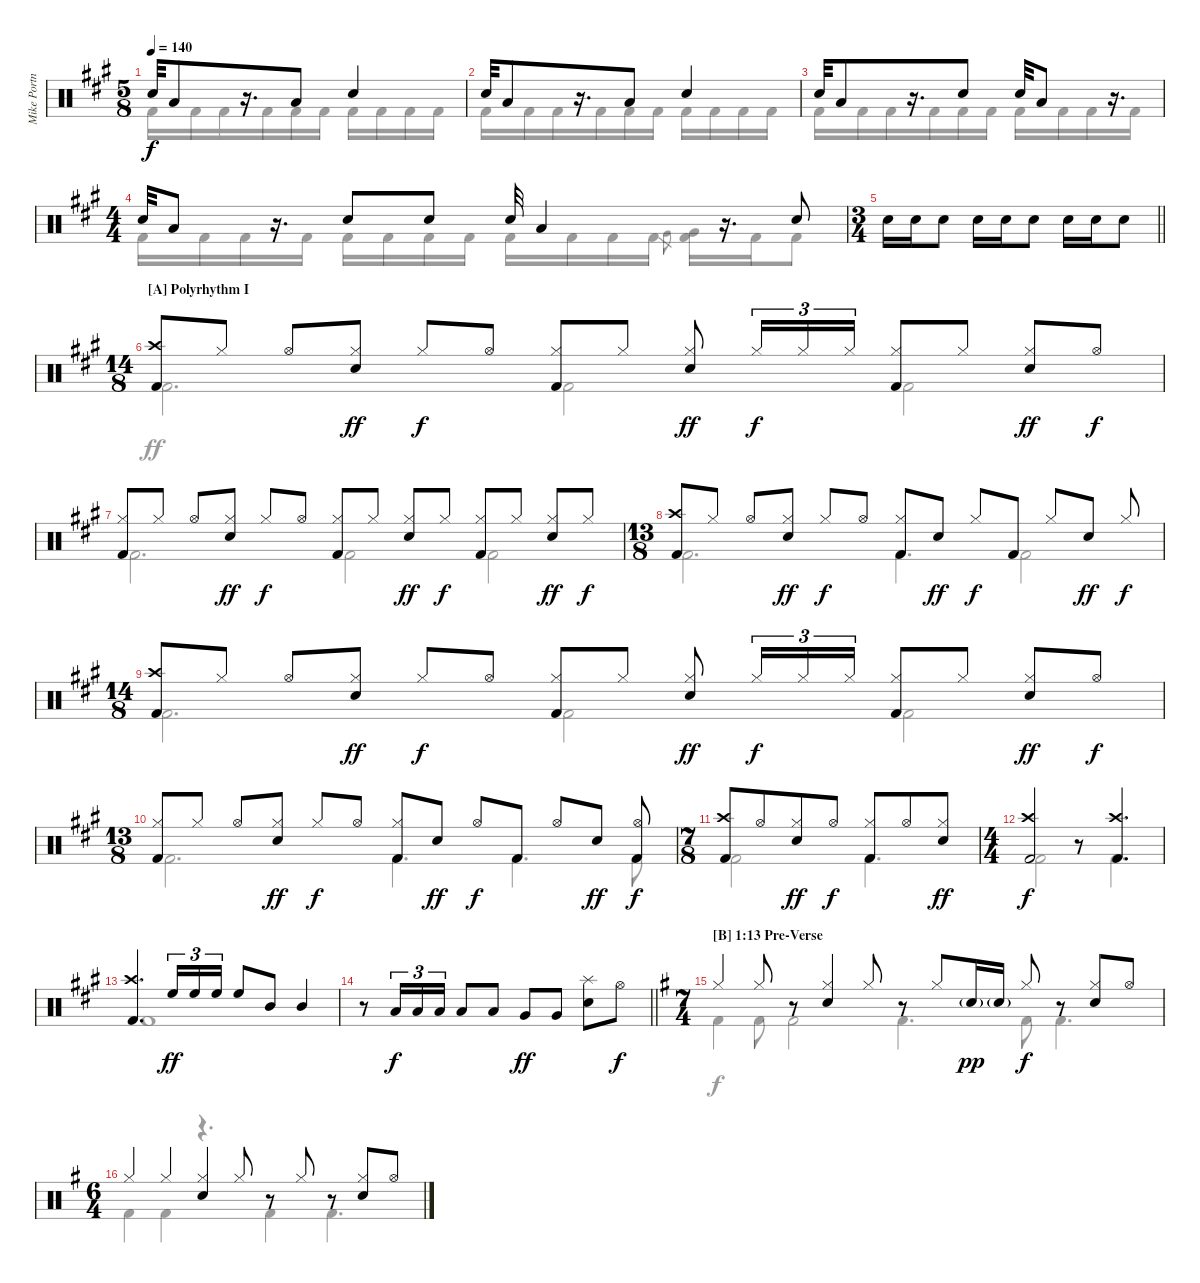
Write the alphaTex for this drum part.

\track ("Mike Portnoy - Drum" "Mike Portn") {instrument percussion}
\staff {score}
\articulation defaults
\voice
\ts (5 8)
\tempo 140
\clef neutral
\ks a "Electric Snare (hit)".32{dy f} "Low Tom (hit)".8
r.16{d} "Low Tom (hit)".8 "Electric Snare (hit)".4 |
"Electric Snare (hit)".32 "Low Tom (hit)".8 r.16{d} "Low Tom (hit)".8 "Electric Snare (hit)".4 |
"Electric Snare (hit)".32 "Low Tom (hit)".8 r.16{d} "Electric Snare (hit)".8 "Electric Snare (hit)".32 "Low Tom (hit)".8 r.16{d} |
\ts (4 4)
"Electric Snare (hit)".32 "Low Tom (hit)".8 r.16{d} "Electric Snare (hit)".8 "Electric Snare (hit)".8 "Electric Snare (hit)".32 "Low Tom (hit)".4 r.16{d} "Electric Snare (hit)".8 |
\ts (3 4)
\barLineRight lightlight "Electric Snare (hit)".16 "Electric Snare (hit)".16 "Electric Snare (hit)".8 "Electric Snare (hit)".16 "Electric Snare (hit)".16 "Electric Snare (hit)".8 "Electric Snare (hit)".16 "Electric Snare (hit)".16 "Electric Snare (hit)".8
|
\ts (14 8)
\section ("" "[A] Polyrhythm I")
("Crash high (hit)" "Kick (hit) 2").8 "Hi-Hat (closed)".8 "Hi-Hat (open)".8 ("Hi-Hat (closed)" "Electric Snare (hit)").8{dy ff} "Hi-Hat (closed)".8{dy f} "Hi-Hat (open)".8 ("Hi-Hat (closed)" "Kick (hit) 2").8 "Hi-Hat (closed)".8 ("Hi-Hat (closed)" "Electric Snare (hit)").8{dy ff} "Hi-Hat (closed)".16{tu (3 2) dy f} "Hi-Hat (closed)".16{tu (3 2)} "Hi-Hat (closed)".16{tu (3 2)} ("Hi-Hat (closed)" "Kick (hit) 2").8 "Hi-Hat (closed)".8 ("Hi-Hat (closed)" "Electric Snare (hit)").8{dy ff} "Hi-Hat (open)".8{dy f} |
("Hi-Hat (closed)" "Kick (hit) 2").8 "Hi-Hat (closed)".8 "Hi-Hat (open)".8 ("Hi-Hat (closed)" "Electric Snare (hit)").8{dy ff} "Hi-Hat (closed)".8{dy f} "Hi-Hat (open)".8 ("Hi-Hat (closed)" "Kick (hit) 2").8 "Hi-Hat (closed)".8 ("Hi-Hat (closed)" "Electric Snare (hit)").8{dy ff} "Hi-Hat (closed)".8{dy f} ("Hi-Hat (closed)" "Kick (hit) 2").8 "Hi-Hat (closed)".8 ("Hi-Hat (closed)" "Electric Snare (hit)").8{dy ff} "Hi-Hat (closed)".8{dy f} |
\ts (13 8)
("Crash high (hit)" "Kick (hit) 2").8 "Hi-Hat (closed)".8 "Hi-Hat (open)".8 ("Hi-Hat (closed)" "Electric Snare (hit)").8{dy ff} "Hi-Hat (closed)".8{dy f} "Hi-Hat (open)".8 ("Hi-Hat (closed)" "Kick (hit) 2").8 "Electric Snare (hit)".8{dy ff} "Hi-Hat (closed)".8{dy f} "Kick (hit) 2".8 "Hi-Hat (closed)".8 "Electric Snare (hit)".8{dy ff} "Hi-Hat (closed)".8{dy f} |
\ts (14 8)
("Crash high (hit)" "Kick (hit) 2").8 "Hi-Hat (closed)".8 "Hi-Hat (open)".8 ("Hi-Hat (closed)" "Electric Snare (hit)").8{dy ff} "Hi-Hat (closed)".8{dy f} "Hi-Hat (open)".8 ("Hi-Hat (closed)" "Kick (hit) 2").8 "Hi-Hat (closed)".8 ("Hi-Hat (closed)" "Electric Snare (hit)").8{dy ff} "Hi-Hat (closed)".16{tu (3 2) dy f} "Hi-Hat (closed)".16{tu (3 2)} "Hi-Hat (closed)".16{tu (3 2)} ("Hi-Hat (closed)" "Kick (hit) 2").8 "Hi-Hat (closed)".8 ("Hi-Hat (closed)" "Electric Snare (hit)").8{dy ff} "Hi-Hat (open)".8{dy f} |
\ts (13 8)
("Hi-Hat (closed)" "Kick (hit) 2").8 "Hi-Hat (closed)".8 "Hi-Hat (open)".8 ("Hi-Hat (closed)" "Electric Snare (hit)").8{dy ff} "Hi-Hat (closed)".8{dy f} "Hi-Hat (open)".8 ("Hi-Hat (closed)" "Kick (hit) 2").8 "Electric Snare (hit)".8{dy ff} "Hi-Hat (open)".8{dy f} "Kick (hit) 2".8 "Hi-Hat (open)".8 "Electric Snare (hit)".8{dy ff} ("Hi-Hat (open)" "Kick (hit) 2").8{dy f} |
\ts (7 8)
("Crash high (hit)" "Kick (hit) 2").8 "Hi-Hat (open)".8 ("Hi-Hat (closed)" "Electric Snare (hit)").8{dy ff} "Hi-Hat (open)".8{dy f} ("Hi-Hat (closed)" "Kick (hit) 2").8 "Hi-Hat (open)".8 ("Hi-Hat (closed)" "Electric Snare (hit)").8{dy ff} |
\ts (4 4)
("Crash high (hit)" "Kick (hit) 2").2{dy f} r.8 ("Crash high (hit)" "Kick (hit) 2").4{d} |
("Crash high (hit)" "Kick (hit) 2").4{d} "High Floor Tom (hit)".16{tu (3 2) dy ff} "High Floor Tom (hit)".16{tu (3 2)} "High Floor Tom (hit)".16{tu (3 2)} "High Floor Tom (hit)".8 "Mid Tom (hit)".8 "Mid Tom (hit)".4 |
\barLineRight lightlight
r.8 "Low Tom (hit)".16{tu (3 2) dy f} "Low Tom (hit)".16{tu (3 2)} "Low Tom (hit)".16{tu (3 2)} "Low Tom (hit)".8 "Low Tom (hit)".8 "Very Low Tom (hit)".8{dy ff} "Very Low Tom (hit)".8 ("Splash (hit)" "Electric Snare (hit)").8 "Hi-Hat (open)".8{dy f} |
\ts (7 4)
\section ("" "[B] 1:13 Pre-Verse")
\ks g "Hi-Hat (closed)".4 "Hi-Hat (closed)".8
r.8 ("Hi-Hat (closed)" "Electric Snare (hit)").4 "Hi-Hat (closed)".8 r.8 "Hi-Hat (closed)".8 "Electric Snare (hit)"{g}.16{dy pp} "Electric Snare (hit)"{g}.16 "Hi-Hat (closed)".8{dy f} r.8 ("Hi-Hat (closed)" "Electric Snare (hit)").8 "Hi-Hat (open)".8 |
\ts (6 4)
"Hi-Hat (closed)".4 "Hi-Hat (closed)".4 ("Hi-Hat (closed)" "Electric Snare (hit)").4 "Hi-Hat (closed)".8 r.8 "Hi-Hat (closed)".8 r.8 ("Hi-Hat (closed)" "Electric Snare (hit)").8 "Hi-Hat (open)".8
\voice
\clef neutral
\ottava regular
\simile none
\ks a "Kick (hit) 2".16{dy f} "Kick (hit) 2".16 "Kick (hit) 2".16 "Kick (hit) 2".16 "Kick (hit) 2".16 "Kick (hit) 2".16 "Kick (hit) 2".16 "Kick (hit) 2".16 "Kick (hit) 2".16 "Kick (hit) 2".16
|
"Kick (hit) 2".16 "Kick (hit) 2".16 "Kick (hit) 2".16 "Kick (hit) 2".16 "Kick (hit) 2".16 "Kick (hit) 2".16 "Kick (hit) 2".16 "Kick (hit) 2".16 "Kick (hit) 2".16 "Kick (hit) 2".16 |
"Kick (hit) 2".16 "Kick (hit) 2".16 "Kick (hit) 2".16 "Kick (hit) 2".16 "Kick (hit) 2".16 "Kick (hit) 2".16 "Kick (hit) 2".16 "Kick (hit) 2".16 "Kick (hit) 2".16 "Kick (hit) 2".16 |
"Kick (hit) 2".16 "Kick (hit) 2".16 "Kick (hit) 2".16 "Kick (hit) 2".16 "Kick (hit) 2".16 "Kick (hit) 2".16 "Kick (hit) 2".16 "Kick (hit) 2".16 "Kick (hit) 2".16 "Kick (hit) 2".16 "Kick (hit) 2".16 "Kick (hit) 2".16 "Very Low Tom (hit)".8{gr} ("Very Low Tom (hit)" "Kick (hit) 2").16 "Kick (hit) 2".16 "Kick (hit) 2".8 |
\barLineRight lightlight
|
"Kick (hit) 2".2{d dy ff} "Kick (hit) 2".2 "Kick (hit) 2".2 |
"Kick (hit) 2".2{d} "Kick (hit) 2".2 "Kick (hit) 2".2 |
"Kick (hit) 2".2{d} "Kick (hit) 2".4{d} "Kick (hit) 2".2 |
"Kick (hit) 2".2{d} "Kick (hit) 2".2 "Kick (hit) 2".2 |
"Kick (hit) 2".2{d} "Kick (hit) 2".4{d} "Kick (hit) 2".4{d} "Kick (hit) 2".8 |
"Kick (hit) 2".2 "Kick (hit) 2".4{d} |
"Kick (hit) 2".2 r.8 "Kick (hit) 2".4{d} |
"Kick (hit) 2".1 |
\barLineRight lightlight
|
\ks g "Kick (hit) 2".4{dy f} "Kick (hit) 2".8 "Kick (hit) 2".2 "Kick (hit) 2".4{d} "Kick (hit) 2".8 "Kick (hit) 2".4{d}
|
"Kick (hit) 2".4 "Kick (hit) 2".4 r.4{d} "Kick (hit) 2".4 "Kick (hit) 2".4{d}
